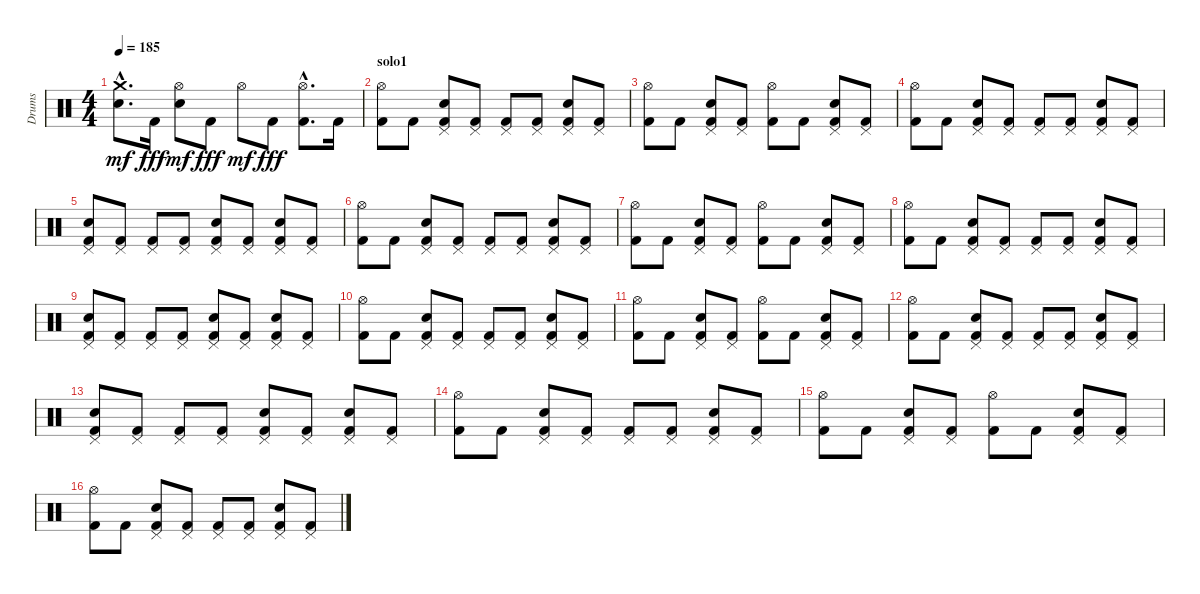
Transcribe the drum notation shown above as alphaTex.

\track ("Drums" "Drums") {instrument percussion}
\staff {score}
\articulation defaults
\ts (4 4)
\tempo 185
\clef neutral
\ks c
("Crash medium (hit)"{hac} "Electric Snare (hit)"{hac}).8{d dy mf} "Kick (hit) 2".16{dy fff} ("Hi-Hat (open)" "Electric Snare (hit)").8{dy mf} "Kick (hit) 2".8{dy fff} "Hi-Hat (open)".8{dy mf} "Kick (hit) 2".8{dy fff} ("Hi-Hat (open)"{hac} "Kick (hit) 2"{hac}).8{d} "Kick (hit) 2".16 |
\section ("" "solo1")
("Hi-Hat (open)" "Kick (hit) 2").8 "Kick (hit) 2".8 ("Pedal Hi-Hat (hit)" "Snare (hit) 2" "Kick (hit) 2").8 ("Pedal Hi-Hat (hit)" "Kick (hit) 2").8 ("Pedal Hi-Hat (hit)" "Kick (hit) 2").8 ("Pedal Hi-Hat (hit)" "Kick (hit) 2").8 ("Pedal Hi-Hat (hit)" "Snare (hit) 2" "Kick (hit) 2").8 ("Pedal Hi-Hat (hit)" "Kick (hit) 2").8 |
("Hi-Hat (open)" "Kick (hit) 2").8 "Kick (hit) 2".8 ("Pedal Hi-Hat (hit)" "Snare (hit) 2" "Kick (hit) 2").8 ("Pedal Hi-Hat (hit)" "Kick (hit) 2").8 ("Hi-Hat (open)" "Kick (hit) 2").8 "Kick (hit) 2".8 ("Pedal Hi-Hat (hit)" "Snare (hit) 2" "Kick (hit) 2").8 ("Pedal Hi-Hat (hit)" "Kick (hit) 2").8 |
("Hi-Hat (open)" "Kick (hit) 2").8 "Kick (hit) 2".8 ("Pedal Hi-Hat (hit)" "Snare (hit) 2" "Kick (hit) 2").8 ("Pedal Hi-Hat (hit)" "Kick (hit) 2").8 ("Pedal Hi-Hat (hit)" "Kick (hit) 2").8 ("Pedal Hi-Hat (hit)" "Kick (hit) 2").8 ("Pedal Hi-Hat (hit)" "Snare (hit) 2" "Kick (hit) 2").8 ("Pedal Hi-Hat (hit)" "Kick (hit) 2").8 |
("Pedal Hi-Hat (hit)" "Snare (hit) 2" "Kick (hit) 2").8 ("Pedal Hi-Hat (hit)" "Kick (hit) 2").8 ("Pedal Hi-Hat (hit)" "Kick (hit) 2").8 ("Pedal Hi-Hat (hit)" "Kick (hit) 2").8 ("Pedal Hi-Hat (hit)" "Snare (hit) 2" "Kick (hit) 2").8 ("Pedal Hi-Hat (hit)" "Kick (hit) 2").8 ("Pedal Hi-Hat (hit)" "Snare (hit) 2" "Kick (hit) 2").8 ("Pedal Hi-Hat (hit)" "Kick (hit) 2").8 |
("Hi-Hat (open)" "Kick (hit) 2").8 "Kick (hit) 2".8 ("Pedal Hi-Hat (hit)" "Snare (hit) 2" "Kick (hit) 2").8 ("Pedal Hi-Hat (hit)" "Kick (hit) 2").8 ("Pedal Hi-Hat (hit)" "Kick (hit) 2").8 ("Pedal Hi-Hat (hit)" "Kick (hit) 2").8 ("Pedal Hi-Hat (hit)" "Snare (hit) 2" "Kick (hit) 2").8 ("Pedal Hi-Hat (hit)" "Kick (hit) 2").8 |
("Hi-Hat (open)" "Kick (hit) 2").8 "Kick (hit) 2".8 ("Pedal Hi-Hat (hit)" "Snare (hit) 2" "Kick (hit) 2").8 ("Pedal Hi-Hat (hit)" "Kick (hit) 2").8 ("Hi-Hat (open)" "Kick (hit) 2").8 "Kick (hit) 2".8 ("Pedal Hi-Hat (hit)" "Snare (hit) 2" "Kick (hit) 2").8 ("Pedal Hi-Hat (hit)" "Kick (hit) 2").8 |
("Hi-Hat (open)" "Kick (hit) 2").8 "Kick (hit) 2".8 ("Pedal Hi-Hat (hit)" "Snare (hit) 2" "Kick (hit) 2").8 ("Pedal Hi-Hat (hit)" "Kick (hit) 2").8 ("Pedal Hi-Hat (hit)" "Kick (hit) 2").8 ("Pedal Hi-Hat (hit)" "Kick (hit) 2").8 ("Pedal Hi-Hat (hit)" "Snare (hit) 2" "Kick (hit) 2").8 ("Pedal Hi-Hat (hit)" "Kick (hit) 2").8 |
("Pedal Hi-Hat (hit)" "Snare (hit) 2" "Kick (hit) 2").8 ("Pedal Hi-Hat (hit)" "Kick (hit) 2").8 ("Pedal Hi-Hat (hit)" "Kick (hit) 2").8 ("Pedal Hi-Hat (hit)" "Kick (hit) 2").8 ("Pedal Hi-Hat (hit)" "Snare (hit) 2" "Kick (hit) 2").8 ("Pedal Hi-Hat (hit)" "Kick (hit) 2").8 ("Pedal Hi-Hat (hit)" "Snare (hit) 2" "Kick (hit) 2").8 ("Pedal Hi-Hat (hit)" "Kick (hit) 2").8 |
("Hi-Hat (open)" "Kick (hit) 2").8 "Kick (hit) 2".8 ("Pedal Hi-Hat (hit)" "Snare (hit) 2" "Kick (hit) 2").8 ("Pedal Hi-Hat (hit)" "Kick (hit) 2").8 ("Pedal Hi-Hat (hit)" "Kick (hit) 2").8 ("Pedal Hi-Hat (hit)" "Kick (hit) 2").8 ("Pedal Hi-Hat (hit)" "Snare (hit) 2" "Kick (hit) 2").8 ("Pedal Hi-Hat (hit)" "Kick (hit) 2").8 |
("Hi-Hat (open)" "Kick (hit) 2").8 "Kick (hit) 2".8 ("Pedal Hi-Hat (hit)" "Snare (hit) 2" "Kick (hit) 2").8 ("Pedal Hi-Hat (hit)" "Kick (hit) 2").8 ("Hi-Hat (open)" "Kick (hit) 2").8 "Kick (hit) 2".8 ("Pedal Hi-Hat (hit)" "Snare (hit) 2" "Kick (hit) 2").8 ("Pedal Hi-Hat (hit)" "Kick (hit) 2").8 |
("Hi-Hat (open)" "Kick (hit) 2").8 "Kick (hit) 2".8 ("Pedal Hi-Hat (hit)" "Snare (hit) 2" "Kick (hit) 2").8 ("Pedal Hi-Hat (hit)" "Kick (hit) 2").8 ("Pedal Hi-Hat (hit)" "Kick (hit) 2").8 ("Pedal Hi-Hat (hit)" "Kick (hit) 2").8 ("Pedal Hi-Hat (hit)" "Snare (hit) 2" "Kick (hit) 2").8 ("Pedal Hi-Hat (hit)" "Kick (hit) 2").8 |
("Pedal Hi-Hat (hit)" "Snare (hit) 2" "Kick (hit) 2").8 ("Pedal Hi-Hat (hit)" "Kick (hit) 2").8 ("Pedal Hi-Hat (hit)" "Kick (hit) 2").8 ("Pedal Hi-Hat (hit)" "Kick (hit) 2").8 ("Pedal Hi-Hat (hit)" "Snare (hit) 2" "Kick (hit) 2").8 ("Pedal Hi-Hat (hit)" "Kick (hit) 2").8 ("Pedal Hi-Hat (hit)" "Snare (hit) 2" "Kick (hit) 2").8 ("Pedal Hi-Hat (hit)" "Kick (hit) 2").8 |
("Hi-Hat (open)" "Kick (hit) 2").8 "Kick (hit) 2".8 ("Pedal Hi-Hat (hit)" "Snare (hit) 2" "Kick (hit) 2").8 ("Pedal Hi-Hat (hit)" "Kick (hit) 2").8 ("Pedal Hi-Hat (hit)" "Kick (hit) 2").8 ("Pedal Hi-Hat (hit)" "Kick (hit) 2").8 ("Pedal Hi-Hat (hit)" "Snare (hit) 2" "Kick (hit) 2").8 ("Pedal Hi-Hat (hit)" "Kick (hit) 2").8 |
("Hi-Hat (open)" "Kick (hit) 2").8 "Kick (hit) 2".8 ("Pedal Hi-Hat (hit)" "Snare (hit) 2" "Kick (hit) 2").8 ("Pedal Hi-Hat (hit)" "Kick (hit) 2").8 ("Hi-Hat (open)" "Kick (hit) 2").8 "Kick (hit) 2".8 ("Pedal Hi-Hat (hit)" "Snare (hit) 2" "Kick (hit) 2").8 ("Pedal Hi-Hat (hit)" "Kick (hit) 2").8 |
("Hi-Hat (open)" "Kick (hit) 2").8 "Kick (hit) 2".8 ("Pedal Hi-Hat (hit)" "Snare (hit) 2" "Kick (hit) 2").8 ("Pedal Hi-Hat (hit)" "Kick (hit) 2").8 ("Pedal Hi-Hat (hit)" "Kick (hit) 2").8 ("Pedal Hi-Hat (hit)" "Kick (hit) 2").8 ("Pedal Hi-Hat (hit)" "Snare (hit) 2" "Kick (hit) 2").8 ("Pedal Hi-Hat (hit)" "Kick (hit) 2").8
